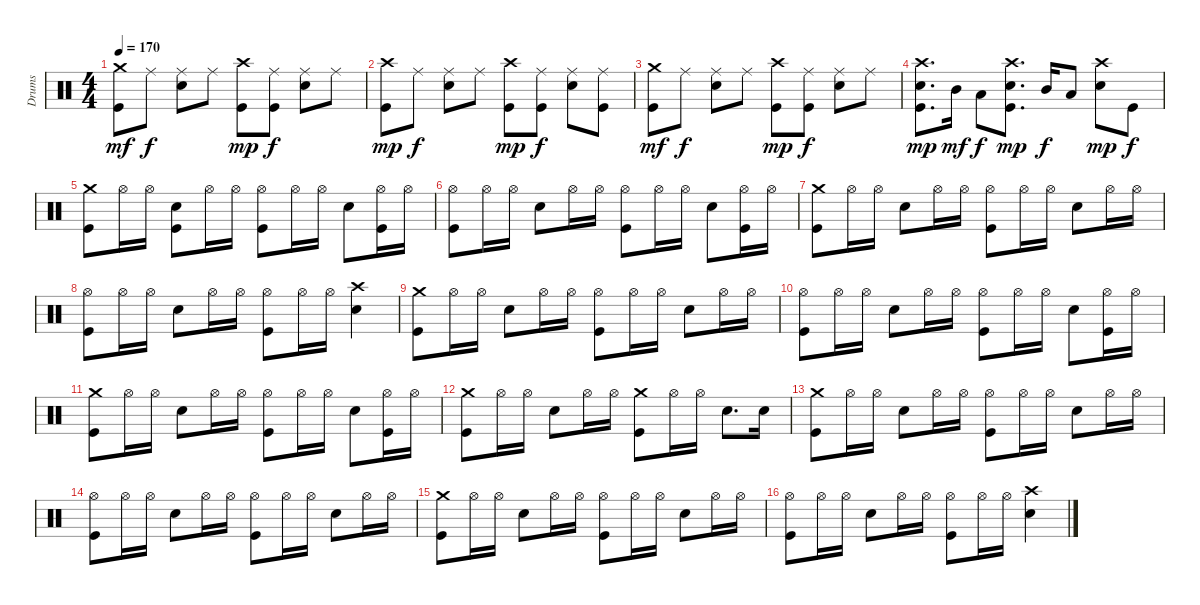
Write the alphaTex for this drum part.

\track ("Drums" "Drums") {instrument percussion}
\staff {score}
\articulation defaults
\ts (4 4)
\tempo 170
\clef neutral
\ks c
("Crash medium (hit)" "Kick (hit)").8{dy mf} "Ride (middle)".8{dy f} ("Ride (middle)" "Snare (hit) 2").8 "Ride (middle)".8 ("Crash high (hit)" "Kick (hit)").8{dy mp} ("Ride (middle)" "Kick (hit)").8{dy f} ("Ride (middle)" "Snare (hit) 2").8 "Ride (middle)".8 |
("Crash high (hit)" "Kick (hit)").8{dy mp} "Ride (middle)".8{dy f} ("Ride (middle)" "Snare (hit) 2").8 "Ride (middle)".8 ("Crash high (hit)" "Kick (hit)").8{dy mp} ("Ride (middle)" "Kick (hit)").8{dy f} ("Ride (middle)" "Snare (hit) 2").8 ("Ride (middle)" "Kick (hit)").8 |
("Crash medium (hit)" "Kick (hit)").8{dy mf} "Ride (middle)".8{dy f} ("Ride (middle)" "Snare (hit) 2").8 "Ride (middle)".8 ("Crash high (hit)" "Kick (hit)").8{dy mp} ("Ride (middle)" "Kick (hit)").8{dy f} ("Ride (middle)" "Snare (hit) 2").8 "Ride (middle)".8 |
("Crash high (hit)" "Snare (hit) 2" "Kick (hit)").8{d dy mp} "Mid Tom (hit)".16{dy mf} "Low Tom (hit)".8{dy f} ("Crash high (hit)" "Snare (hit) 2" "Kick (hit)").8{d dy mp} "Mid Tom (hit)".16{dy f} "Low Tom (hit)".8 ("Crash high (hit)" "Snare (hit) 2").8{dy mp} "Kick (hit)".8{dy f} |
("Crash medium (hit)" "Kick (hit)").8 "Hi-Hat (open)".16 "Hi-Hat (open)".16 ("Snare (hit) 2" "Kick (hit)").8 "Hi-Hat (open)".16 "Hi-Hat (open)".16 ("Hi-Hat (open)" "Kick (hit)").8 "Hi-Hat (open)".16 "Hi-Hat (open)".16 "Snare (hit) 2".8 ("Hi-Hat (open)" "Kick (hit)").16 "Hi-Hat (open)".16 |
("Hi-Hat (open)" "Kick (hit)").8 "Hi-Hat (open)".16 "Hi-Hat (open)".16 "Snare (hit) 2".8 "Hi-Hat (open)".16 "Hi-Hat (open)".16 ("Hi-Hat (open)" "Kick (hit)").8 "Hi-Hat (open)".16 "Hi-Hat (open)".16 "Snare (hit) 2".8 ("Hi-Hat (open)" "Kick (hit)").16 "Hi-Hat (open)".16 |
("Crash medium (hit)" "Kick (hit)").8 "Hi-Hat (open)".16 "Hi-Hat (open)".16 "Snare (hit) 2".8 "Hi-Hat (open)".16 "Hi-Hat (open)".16 ("Hi-Hat (open)" "Kick (hit)").8 "Hi-Hat (open)".16 "Hi-Hat (open)".16 "Snare (hit) 2".8 "Hi-Hat (open)".16 "Hi-Hat (open)".16 |
("Hi-Hat (open)" "Kick (hit)").8 "Hi-Hat (open)".16 "Hi-Hat (open)".16 "Snare (hit) 2".8 "Hi-Hat (open)".16 "Hi-Hat (open)".16 ("Hi-Hat (open)" "Kick (hit)").8 "Hi-Hat (open)".16 "Hi-Hat (open)".16 ("Crash high (hit)" "Snare (hit) 2").4 |
("Crash medium (hit)" "Kick (hit)").8 "Hi-Hat (open)".16 "Hi-Hat (open)".16 "Snare (hit) 2".8 "Hi-Hat (open)".16 "Hi-Hat (open)".16 ("Hi-Hat (open)" "Kick (hit)").8 "Hi-Hat (open)".16 "Hi-Hat (open)".16 "Snare (hit) 2".8 "Hi-Hat (open)".16 "Hi-Hat (open)".16 |
("Hi-Hat (open)" "Kick (hit)").8 "Hi-Hat (open)".16 "Hi-Hat (open)".16 "Snare (hit) 2".8 "Hi-Hat (open)".16 "Hi-Hat (open)".16 ("Hi-Hat (open)" "Kick (hit)").8 "Hi-Hat (open)".16 "Hi-Hat (open)".16 "Snare (hit) 2".8 ("Hi-Hat (open)" "Kick (hit)").16 "Hi-Hat (open)".16 |
("Crash medium (hit)" "Kick (hit)").8 "Hi-Hat (open)".16 "Hi-Hat (open)".16 "Snare (hit) 2".8 "Hi-Hat (open)".16 "Hi-Hat (open)".16 ("Hi-Hat (open)" "Kick (hit)").8 "Hi-Hat (open)".16 "Hi-Hat (open)".16 "Snare (hit) 2".8 ("Hi-Hat (open)" "Kick (hit)").16 "Hi-Hat (open)".16 |
("Crash medium (hit)" "Kick (hit)").8 "Hi-Hat (open)".16 "Hi-Hat (open)".16 "Snare (hit) 2".8 "Hi-Hat (open)".16 "Hi-Hat (open)".16 ("Crash medium (hit)" "Kick (hit)").8 "Hi-Hat (open)".16 "Hi-Hat (open)".16 "Snare (hit) 2".8{d} "Snare (hit) 2".16 |
("Crash medium (hit)" "Kick (hit)").8 "Hi-Hat (open)".16 "Hi-Hat (open)".16 "Snare (hit) 2".8 "Hi-Hat (open)".16 "Hi-Hat (open)".16 ("Hi-Hat (open)" "Kick (hit)").8 "Hi-Hat (open)".16 "Hi-Hat (open)".16 "Snare (hit) 2".8 "Hi-Hat (open)".16 "Hi-Hat (open)".16 |
("Hi-Hat (open)" "Kick (hit)").8 "Hi-Hat (open)".16 "Hi-Hat (open)".16 "Snare (hit) 2".8 "Hi-Hat (open)".16 "Hi-Hat (open)".16 ("Hi-Hat (open)" "Kick (hit)").8 "Hi-Hat (open)".16 "Hi-Hat (open)".16 "Snare (hit) 2".8 "Hi-Hat (open)".16 "Hi-Hat (open)".16 |
("Crash medium (hit)" "Kick (hit)").8 "Hi-Hat (open)".16 "Hi-Hat (open)".16 "Snare (hit) 2".8 "Hi-Hat (open)".16 "Hi-Hat (open)".16 ("Hi-Hat (open)" "Kick (hit)").8 "Hi-Hat (open)".16 "Hi-Hat (open)".16 "Snare (hit) 2".8 "Hi-Hat (open)".16 "Hi-Hat (open)".16 |
("Hi-Hat (open)" "Kick (hit)").8 "Hi-Hat (open)".16 "Hi-Hat (open)".16 "Snare (hit) 2".8 "Hi-Hat (open)".16 "Hi-Hat (open)".16 ("Hi-Hat (open)" "Kick (hit)").8 "Hi-Hat (open)".16 "Hi-Hat (open)".16 ("Crash high (hit)" "Snare (hit) 2").4
